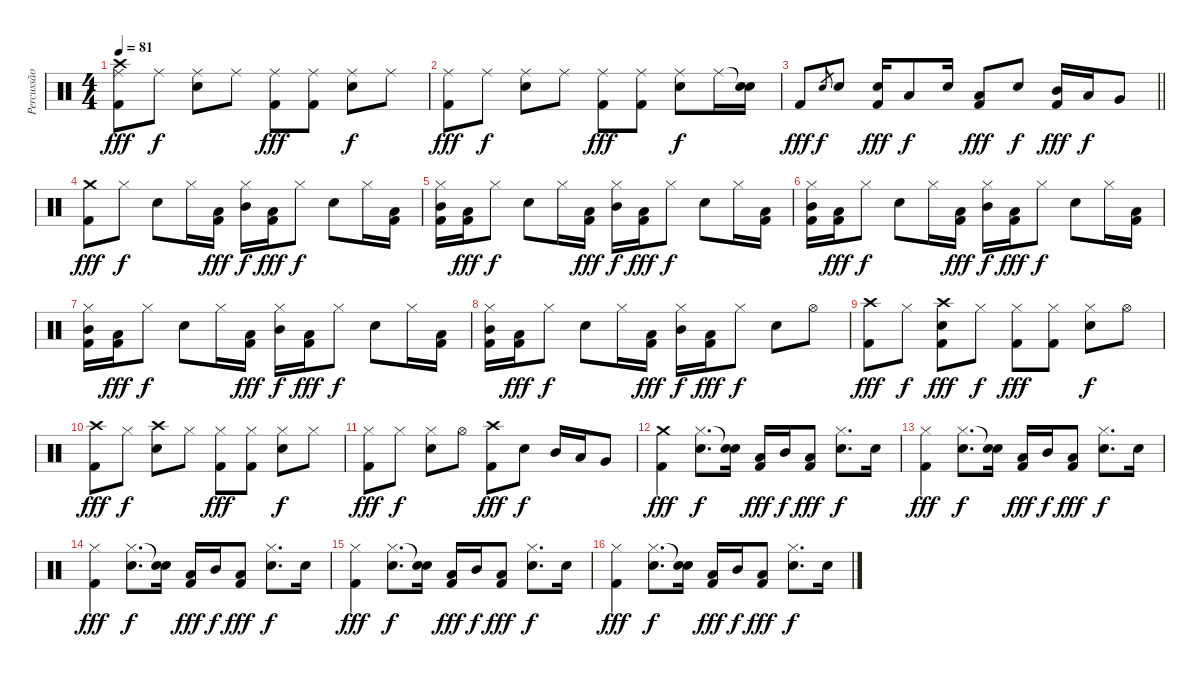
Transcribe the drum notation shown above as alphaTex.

\track ("Percussão" "Percussão") {instrument percussion}
\staff {score}
\articulation defaults
\ts (4 4)
\tempo 81
\clef neutral
\ks c
("Ride (middle)" "Crash high (hit)" "Kick (hit) 2").8{dy fff} "Ride (middle)".8{dy f} ("Ride (middle)" "Snare (hit) 2").8 "Ride (middle)".8 ("Ride (middle)" "Kick (hit) 2").8{dy fff} ("Ride (middle)" "Kick (hit) 2").8 ("Ride (middle)" "Snare (hit) 2").8{dy f} "Ride (middle)".8 |
("Ride (middle)" "Kick (hit) 2").8{dy fff} "Ride (middle)".8{dy f} ("Ride (middle)" "Snare (hit) 2").8 "Ride (middle)".8 ("Ride (middle)" "Kick (hit) 2").8{dy fff} ("Ride (middle)" "Kick (hit) 2").8 ("Ride (middle)" "Snare (hit) 2").8{dy f} "Ride (middle)".16 ("Snare (hit)"{t} "Snare (hit) 2").16 |
\barLineRight lightlight "Kick (hit) 2".8{dy fff} "Snare (hit) 2".8{gr dy f} "Snare (hit) 2".8
("Snare (hit) 2" "Kick (hit) 2").16{dy fff} "Low Tom (hit)".8{dy f} "Snare (hit) 2".16 ("Low Tom (hit)" "Kick (hit) 2").8{dy fff} "Snare (hit) 2".8{dy f} ("Mid Tom (hit)" "Kick (hit) 2").16{dy fff} "Low Tom (hit)".16{dy f} "Very Low Tom (hit)".8 |
("Crash medium (hit)" "Kick (hit) 2").8{dy fff} "Hi-Hat (closed)".8{dy f} "Snare (hit) 2".8 "Hi-Hat (closed)".16 ("Low Tom (hit)" "Kick (hit) 2").16{dy fff} ("Hi-Hat (closed)" "Mid Tom (hit)").16{dy f} ("Low Tom (hit)" "Kick (hit) 2").16{dy fff} "Hi-Hat (closed)".8{dy f} "Snare (hit) 2".8 "Hi-Hat (closed)".16 ("Low Tom (hit)" "Kick (hit) 2").16 |
("Hi-Hat (closed)" "Mid Tom (hit)" "Kick (hit) 2").16 ("Low Tom (hit)" "Kick (hit) 2").16{dy fff} "Hi-Hat (closed)".8{dy f} "Snare (hit) 2".8 "Hi-Hat (closed)".16 ("Low Tom (hit)" "Kick (hit) 2").16{dy fff} ("Hi-Hat (closed)" "Mid Tom (hit)").16{dy f} ("Low Tom (hit)" "Kick (hit) 2").16{dy fff} "Hi-Hat (closed)".8{dy f} "Snare (hit) 2".8 "Hi-Hat (closed)".16 ("Low Tom (hit)" "Kick (hit) 2").16 |
("Hi-Hat (closed)" "Mid Tom (hit)" "Kick (hit) 2").16 ("Low Tom (hit)" "Kick (hit) 2").16{dy fff} "Hi-Hat (closed)".8{dy f} "Snare (hit) 2".8 "Hi-Hat (closed)".16 ("Low Tom (hit)" "Kick (hit) 2").16{dy fff} ("Hi-Hat (closed)" "Mid Tom (hit)").16{dy f} ("Low Tom (hit)" "Kick (hit) 2").16{dy fff} "Hi-Hat (closed)".8{dy f} "Snare (hit) 2".8 "Hi-Hat (closed)".16 ("Low Tom (hit)" "Kick (hit) 2").16 |
("Hi-Hat (closed)" "Mid Tom (hit)" "Kick (hit) 2").16 ("Low Tom (hit)" "Kick (hit) 2").16{dy fff} "Hi-Hat (closed)".8{dy f} "Snare (hit) 2".8 "Hi-Hat (closed)".16 ("Low Tom (hit)" "Kick (hit) 2").16{dy fff} ("Hi-Hat (closed)" "Mid Tom (hit)").16{dy f} ("Low Tom (hit)" "Kick (hit) 2").16{dy fff} "Hi-Hat (closed)".8{dy f} "Snare (hit) 2".8 "Hi-Hat (closed)".16 ("Low Tom (hit)" "Kick (hit) 2").16 |
("Hi-Hat (closed)" "Mid Tom (hit)" "Kick (hit) 2").16 ("Low Tom (hit)" "Kick (hit) 2").16{dy fff} "Hi-Hat (closed)".8{dy f} "Snare (hit) 2".8 "Hi-Hat (closed)".16 ("Low Tom (hit)" "Kick (hit) 2").16{dy fff} ("Hi-Hat (closed)" "Mid Tom (hit)").16{dy f} ("Low Tom (hit)" "Kick (hit) 2").16{dy fff} "Hi-Hat (closed)".8{dy f} "Snare (hit) 2".8 "Hi-Hat (open)".8 |
("Crash high (hit)" "Kick (hit) 2").8{dy fff} "Hi-Hat (closed)".8{dy f} ("Crash high (hit)" "Snare (hit) 2" "Kick (hit) 2").8{dy fff} "Hi-Hat (closed)".8{dy f} ("Hi-Hat (closed)" "Kick (hit) 2").8{dy fff} ("Hi-Hat (closed)" "Kick (hit) 2").8 ("Hi-Hat (closed)" "Snare (hit) 2").8{dy f} "Hi-Hat (open)".8 |
("Crash high (hit)" "Kick (hit) 2").8{dy fff} "Hi-Hat (closed)".8{dy f} ("Crash high (hit)" "Snare (hit) 2").8 "Hi-Hat (closed)".8 ("Hi-Hat (closed)" "Kick (hit) 2").8{dy fff} ("Hi-Hat (closed)" "Kick (hit) 2").8 ("Hi-Hat (closed)" "Snare (hit) 2").8{dy f} "Hi-Hat (closed)".8 |
("Hi-Hat (closed)" "Kick (hit) 2").8{dy fff} "Hi-Hat (closed)".8{dy f} ("Hi-Hat (closed)" "Snare (hit) 2").8 "Hi-Hat (open)".8 ("Crash high (hit)" "Kick (hit) 2").8{dy fff} "Snare (hit) 2".8{dy f} "Mid Tom (hit)".16 "Low Tom (hit)".16 "Very Low Tom (hit)".8 |
("Crash medium (hit)" "Kick (hit) 2").4{dy fff} ("Hi-Hat (closed)" "Snare (hit) 2").8{d dy f} ("Snare (hit)"{t} "Snare (hit) 2").16 ("Low Tom (hit)" "Kick (hit) 2").16{dy fff} "Mid Tom (hit)".16{dy f} ("Low Tom (hit)" "Kick (hit) 2").8{dy fff} ("Hi-Hat (closed)" "Snare (hit) 2").8{d dy f} "Snare (hit) 2".16 |
("Hi-Hat (closed)" "Kick (hit) 2").4{dy fff} ("Hi-Hat (closed)" "Snare (hit) 2").8{d dy f} ("Snare (hit)"{t} "Snare (hit) 2").16 ("Low Tom (hit)" "Kick (hit) 2").16{dy fff} "Mid Tom (hit)".16{dy f} ("Low Tom (hit)" "Kick (hit) 2").8{dy fff} ("Hi-Hat (closed)" "Snare (hit) 2").8{d dy f} "Snare (hit) 2".16 |
("Hi-Hat (closed)" "Kick (hit) 2").4{dy fff} ("Hi-Hat (closed)" "Snare (hit) 2").8{d dy f} ("Snare (hit)"{t} "Snare (hit) 2").16 ("Low Tom (hit)" "Kick (hit) 2").16{dy fff} "Mid Tom (hit)".16{dy f} ("Low Tom (hit)" "Kick (hit) 2").8{dy fff} ("Hi-Hat (closed)" "Snare (hit) 2").8{d dy f} "Snare (hit) 2".16 |
("Hi-Hat (closed)" "Kick (hit) 2").4{dy fff} ("Hi-Hat (closed)" "Snare (hit) 2").8{d dy f} ("Snare (hit)"{t} "Snare (hit) 2").16 ("Low Tom (hit)" "Kick (hit) 2").16{dy fff} "Mid Tom (hit)".16{dy f} ("Low Tom (hit)" "Kick (hit) 2").8{dy fff} ("Hi-Hat (closed)" "Snare (hit) 2").8{d dy f} "Snare (hit) 2".16 |
("Hi-Hat (closed)" "Kick (hit) 2").4{dy fff} ("Hi-Hat (closed)" "Snare (hit) 2").8{d dy f} ("Snare (hit)"{t} "Snare (hit) 2").16 ("Low Tom (hit)" "Kick (hit) 2").16{dy fff} "Mid Tom (hit)".16{dy f} ("Low Tom (hit)" "Kick (hit) 2").8{dy fff} ("Hi-Hat (closed)" "Snare (hit) 2").8{d dy f} "Snare (hit) 2".16
